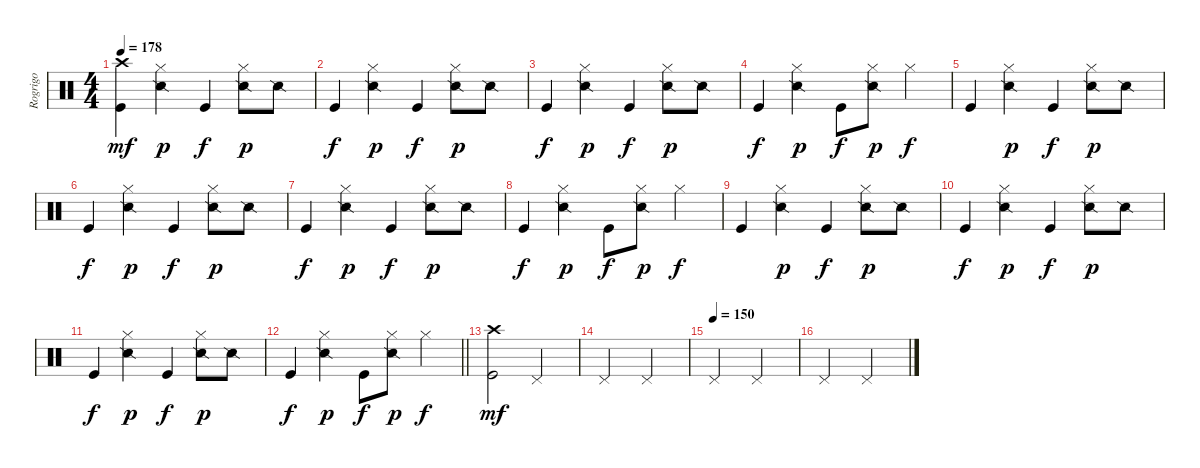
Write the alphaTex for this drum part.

\track ("Rogrigo" "Rogrigo") {instrument percussion}
\staff {score}
\articulation defaults
\ts (4 4)
\tempo 178
\clef neutral
\ks c
("Crash high (hit)" "Kick (hit)").4{dy mf} ("Hi-Hat (closed)" "Snare (side stick) 2").4{dy p} "Kick (hit)".4{dy f} ("Hi-Hat (closed)" "Snare (side stick) 2").8{dy p} "Snare (side stick) 2".8 |
"Kick (hit)".4{dy f} ("Hi-Hat (closed)" "Snare (side stick) 2").4{dy p} "Kick (hit)".4{dy f} ("Hi-Hat (closed)" "Snare (side stick) 2").8{dy p} "Snare (side stick) 2".8 |
"Kick (hit)".4{dy f} ("Hi-Hat (closed)" "Snare (side stick) 2").4{dy p} "Kick (hit)".4{dy f} ("Hi-Hat (closed)" "Snare (side stick) 2").8{dy p} "Snare (side stick) 2".8 |
"Kick (hit)".4{dy f} ("Hi-Hat (closed)" "Snare (side stick) 2").4{dy p} "Kick (hit)".8{dy f} ("Hi-Hat (closed)" "Snare (side stick) 2").8{dy p} "Hi-Hat (closed)".4{dy f} |
"Kick (hit)".4 ("Hi-Hat (closed)" "Snare (side stick) 2").4{dy p} "Kick (hit)".4{dy f} ("Hi-Hat (closed)" "Snare (side stick) 2").8{dy p} "Snare (side stick) 2".8 |
"Kick (hit)".4{dy f} ("Hi-Hat (closed)" "Snare (side stick) 2").4{dy p} "Kick (hit)".4{dy f} ("Hi-Hat (closed)" "Snare (side stick) 2").8{dy p} "Snare (side stick) 2".8 |
"Kick (hit)".4{dy f} ("Hi-Hat (closed)" "Snare (side stick) 2").4{dy p} "Kick (hit)".4{dy f} ("Hi-Hat (closed)" "Snare (side stick) 2").8{dy p} "Snare (side stick) 2".8 |
"Kick (hit)".4{dy f} ("Hi-Hat (closed)" "Snare (side stick) 2").4{dy p} "Kick (hit)".8{dy f} ("Hi-Hat (closed)" "Snare (side stick) 2").8{dy p} "Hi-Hat (closed)".4{dy f} |
"Kick (hit)".4 ("Hi-Hat (closed)" "Snare (side stick) 2").4{dy p} "Kick (hit)".4{dy f} ("Hi-Hat (closed)" "Snare (side stick) 2").8{dy p} "Snare (side stick) 2".8 |
"Kick (hit)".4{dy f} ("Hi-Hat (closed)" "Snare (side stick) 2").4{dy p} "Kick (hit)".4{dy f} ("Hi-Hat (closed)" "Snare (side stick) 2").8{dy p} "Snare (side stick) 2".8 |
"Kick (hit)".4{dy f} ("Hi-Hat (closed)" "Snare (side stick) 2").4{dy p} "Kick (hit)".4{dy f} ("Hi-Hat (closed)" "Snare (side stick) 2").8{dy p} "Snare (side stick) 2".8 |
\barLineRight lightlight "Kick (hit)".4{dy f}
("Hi-Hat (closed)" "Snare (side stick) 2").4{dy p} "Kick (hit)".8{dy f} ("Hi-Hat (closed)" "Snare (side stick) 2").8{dy p} "Hi-Hat (closed)".4{dy f} |
("Crash high (hit)" "Kick (hit)").2{dy mf} "Pedal Hi-Hat (hit)".2 |
"Pedal Hi-Hat (hit)".2 "Pedal Hi-Hat (hit)".2 |
\tempo (150)
"Pedal Hi-Hat (hit)".2 "Pedal Hi-Hat (hit)".2 |
"Pedal Hi-Hat (hit)".2 "Pedal Hi-Hat (hit)".2
